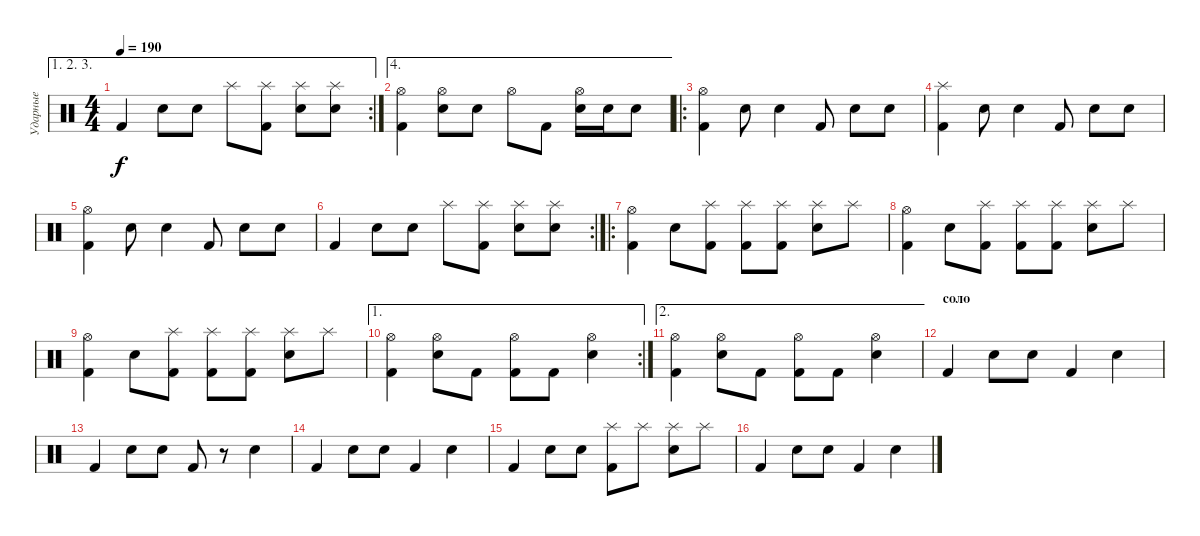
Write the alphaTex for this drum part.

\track ("Ударные" "Ударные") {instrument percussion}
\staff {score}
\articulation defaults
\ae (1 2 3)
\rc 2
\ts (4 4)
\tempo 190
\clef neutral
\ks c "Kick (hit) 2".4{dy f} "Electric Snare (hit)".8 "Electric Snare (hit)".8 "Splash (hit)".8
("Splash (hit)" "Kick (hit) 2").8 ("Splash (hit)" "Electric Snare (hit)").8 ("Splash (hit)" "Electric Snare (hit)").8 |
\ae 4
("Hi-Hat (open)" "Kick (hit) 2").4 ("Hi-Hat (open)" "Electric Snare (hit)").8 "Electric Snare (hit)".8 "Hi-Hat (open)".8 "Kick (hit) 2".8 ("Hi-Hat (open)" "Electric Snare (hit)").16 "Electric Snare (hit)".16 "Electric Snare (hit)".8 |
\ro
("Hi-Hat (open)" "Kick (hit) 2").4 "Electric Snare (hit)".8 "Electric Snare (hit)".4 "Kick (hit) 2".8 "Electric Snare (hit)".8 "Electric Snare (hit)".8 |
("Splash (hit)" "Kick (hit) 2").4 "Electric Snare (hit)".8 "Electric Snare (hit)".4 "Kick (hit) 2".8 "Electric Snare (hit)".8 "Electric Snare (hit)".8 |
("Hi-Hat (open)" "Kick (hit) 2").4 "Electric Snare (hit)".8 "Electric Snare (hit)".4 "Kick (hit) 2".8 "Electric Snare (hit)".8 "Electric Snare (hit)".8 |
\rc 2 "Kick (hit) 2".4 "Electric Snare (hit)".8 "Electric Snare (hit)".8 "Splash (hit)".8
("Splash (hit)" "Kick (hit) 2").8 ("Splash (hit)" "Electric Snare (hit)").8 ("Splash (hit)" "Electric Snare (hit)").8 |
\ro
("Hi-Hat (open)" "Kick (hit) 2").4 "Electric Snare (hit)".8 ("Splash (hit)" "Kick (hit) 2").8 ("Splash (hit)" "Kick (hit) 2").8 ("Splash (hit)" "Kick (hit) 2").8 ("Splash (hit)" "Electric Snare (hit)").8 "Splash (hit)".8 |
("Hi-Hat (open)" "Kick (hit) 2").4 "Electric Snare (hit)".8 ("Splash (hit)" "Kick (hit) 2").8 ("Splash (hit)" "Kick (hit) 2").8 ("Splash (hit)" "Kick (hit) 2").8 ("Splash (hit)" "Electric Snare (hit)").8 "Splash (hit)".8 |
("Hi-Hat (open)" "Kick (hit) 2").4 "Electric Snare (hit)".8 ("Splash (hit)" "Kick (hit) 2").8 ("Splash (hit)" "Kick (hit) 2").8 ("Splash (hit)" "Kick (hit) 2").8 ("Splash (hit)" "Electric Snare (hit)").8 "Splash (hit)".8 |
\ae 1
\rc 2
("Hi-Hat (open)" "Kick (hit) 2").4 ("Hi-Hat (open)" "Electric Snare (hit)").8 "Kick (hit) 2".8 ("Hi-Hat (open)" "Kick (hit) 2").8 "Kick (hit) 2".8 ("Hi-Hat (open)" "Electric Snare (hit)").4 |
\ae 2
("Hi-Hat (open)" "Kick (hit) 2").4 ("Hi-Hat (open)" "Electric Snare (hit)").8 "Kick (hit) 2".8 ("Hi-Hat (open)" "Kick (hit) 2").8 "Kick (hit) 2".8 ("Hi-Hat (open)" "Electric Snare (hit)").4 |
\section ("" "соло")
"Kick (hit) 2".4 "Electric Snare (hit)".8 "Electric Snare (hit)".8 "Kick (hit) 2".4 "Electric Snare (hit)".4 |
"Kick (hit) 2".4 "Electric Snare (hit)".8 "Electric Snare (hit)".8 "Kick (hit) 2".8 r.8 "Electric Snare (hit)".4 |
"Kick (hit) 2".4 "Electric Snare (hit)".8 "Electric Snare (hit)".8 "Kick (hit) 2".4 "Electric Snare (hit)".4 |
"Kick (hit) 2".4 "Electric Snare (hit)".8 "Electric Snare (hit)".8 ("Splash (hit)" "Kick (hit) 2").8 "Splash (hit)".8 ("Splash (hit)" "Electric Snare (hit)").8 "Splash (hit)".8 |
"Kick (hit) 2".4 "Electric Snare (hit)".8 "Electric Snare (hit)".8 "Kick (hit) 2".4 "Electric Snare (hit)".4
